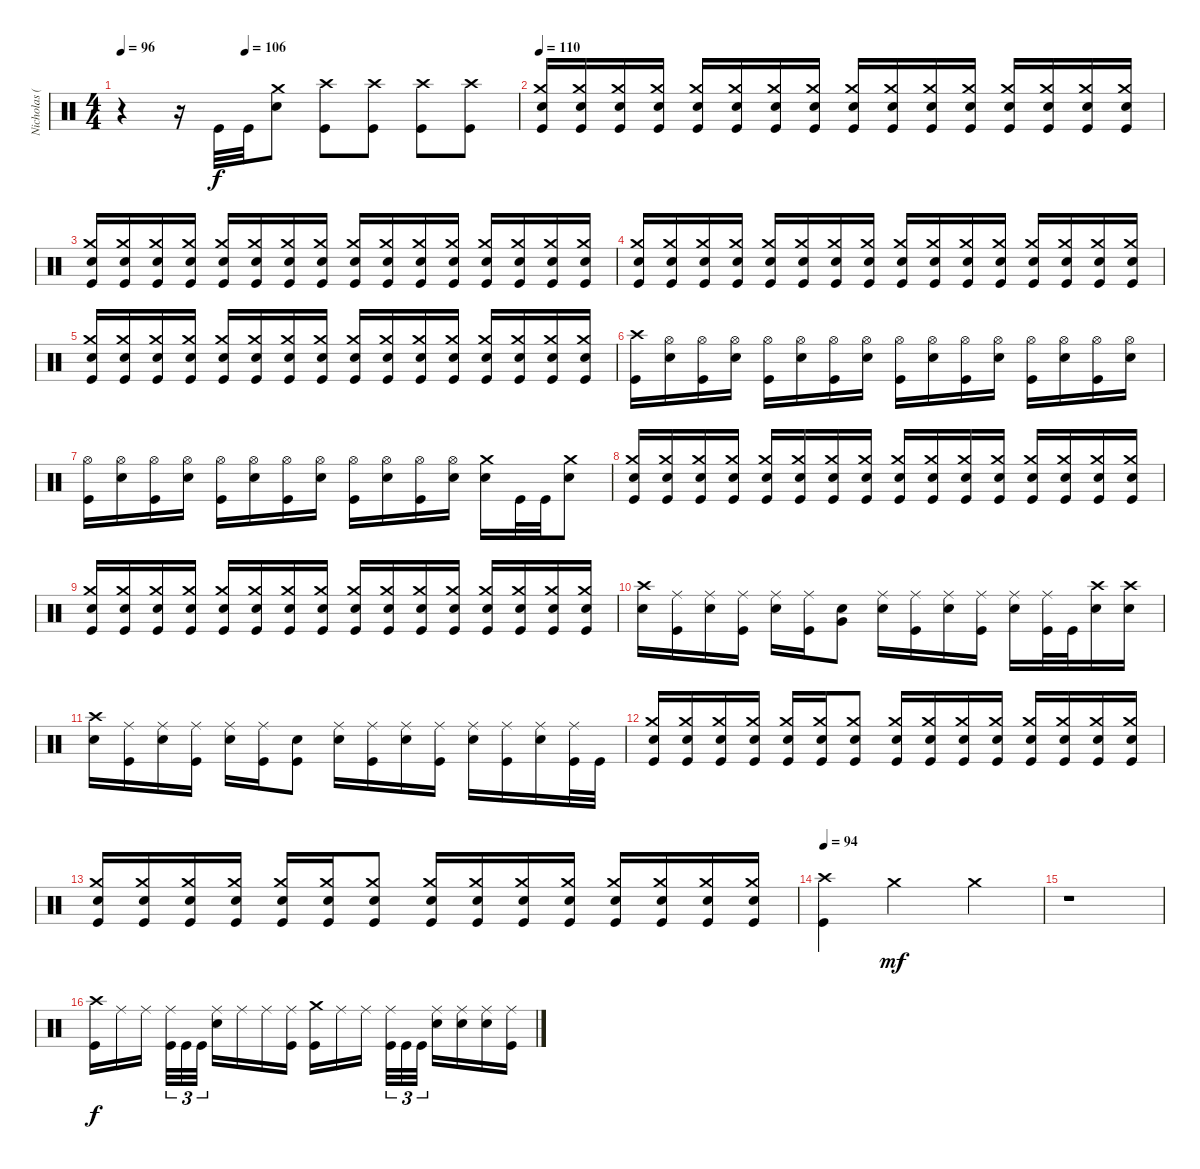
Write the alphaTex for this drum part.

\track ("Nicholas (Drums)" "Nicholas (") {instrument percussion}
\staff {score}
\articulation defaults
\ts (4 4)
\tempo 96
\tempo (106 0.3125)
\clef neutral
\ks c
r.4{dy f} r.16 "Kick (hit)".32 "Kick (hit)".32 ("Crash medium (hit)" "Electric Snare (hit)").8 ("Crash high (hit)" "Kick (hit)").8 ("Crash high (hit)" "Kick (hit)").8 ("Crash high (hit)" "Kick (hit)").8 ("Crash high (hit)" "Kick (hit)").8 |
\tempo 110
("Crash medium (hit)" "Electric Snare (hit)" "Kick (hit)").16 ("Crash medium (hit)" "Electric Snare (hit)" "Kick (hit)").16 ("Crash medium (hit)" "Electric Snare (hit)" "Kick (hit)").16 ("Crash medium (hit)" "Electric Snare (hit)" "Kick (hit)").16 ("Crash medium (hit)" "Electric Snare (hit)" "Kick (hit)").16 ("Crash medium (hit)" "Electric Snare (hit)" "Kick (hit)").16 ("Crash medium (hit)" "Electric Snare (hit)" "Kick (hit)").16 ("Crash medium (hit)" "Electric Snare (hit)" "Kick (hit)").16 ("Crash medium (hit)" "Electric Snare (hit)" "Kick (hit)").16 ("Crash medium (hit)" "Electric Snare (hit)" "Kick (hit)").16 ("Crash medium (hit)" "Electric Snare (hit)" "Kick (hit)").16 ("Crash medium (hit)" "Electric Snare (hit)" "Kick (hit)").16 ("Crash medium (hit)" "Electric Snare (hit)" "Kick (hit)").16 ("Crash medium (hit)" "Electric Snare (hit)" "Kick (hit)").16 ("Crash medium (hit)" "Electric Snare (hit)" "Kick (hit)").16 ("Crash medium (hit)" "Electric Snare (hit)" "Kick (hit)").16 |
("Crash medium (hit)" "Electric Snare (hit)" "Kick (hit)").16 ("Crash medium (hit)" "Electric Snare (hit)" "Kick (hit)").16 ("Crash medium (hit)" "Electric Snare (hit)" "Kick (hit)").16 ("Crash medium (hit)" "Electric Snare (hit)" "Kick (hit)").16 ("Crash medium (hit)" "Electric Snare (hit)" "Kick (hit)").16 ("Crash medium (hit)" "Electric Snare (hit)" "Kick (hit)").16 ("Crash medium (hit)" "Electric Snare (hit)" "Kick (hit)").16 ("Crash medium (hit)" "Electric Snare (hit)" "Kick (hit)").16 ("Crash medium (hit)" "Electric Snare (hit)" "Kick (hit)").16 ("Crash medium (hit)" "Electric Snare (hit)" "Kick (hit)").16 ("Crash medium (hit)" "Electric Snare (hit)" "Kick (hit)").16 ("Crash medium (hit)" "Electric Snare (hit)" "Kick (hit)").16 ("Crash medium (hit)" "Electric Snare (hit)" "Kick (hit)").16 ("Crash medium (hit)" "Electric Snare (hit)" "Kick (hit)").16 ("Crash medium (hit)" "Electric Snare (hit)" "Kick (hit)").16 ("Crash medium (hit)" "Electric Snare (hit)" "Kick (hit)").16 |
("Crash medium (hit)" "Electric Snare (hit)" "Kick (hit)").16 ("Crash medium (hit)" "Electric Snare (hit)" "Kick (hit)").16 ("Crash medium (hit)" "Electric Snare (hit)" "Kick (hit)").16 ("Crash medium (hit)" "Electric Snare (hit)" "Kick (hit)").16 ("Crash medium (hit)" "Electric Snare (hit)" "Kick (hit)").16 ("Crash medium (hit)" "Electric Snare (hit)" "Kick (hit)").16 ("Crash medium (hit)" "Electric Snare (hit)" "Kick (hit)").16 ("Crash medium (hit)" "Electric Snare (hit)" "Kick (hit)").16 ("Crash medium (hit)" "Electric Snare (hit)" "Kick (hit)").16 ("Crash medium (hit)" "Electric Snare (hit)" "Kick (hit)").16 ("Crash medium (hit)" "Electric Snare (hit)" "Kick (hit)").16 ("Crash medium (hit)" "Electric Snare (hit)" "Kick (hit)").16 ("Crash medium (hit)" "Electric Snare (hit)" "Kick (hit)").16 ("Crash medium (hit)" "Electric Snare (hit)" "Kick (hit)").16 ("Crash medium (hit)" "Electric Snare (hit)" "Kick (hit)").16 ("Crash medium (hit)" "Electric Snare (hit)" "Kick (hit)").16 |
("Crash medium (hit)" "Electric Snare (hit)" "Kick (hit)").16 ("Crash medium (hit)" "Electric Snare (hit)" "Kick (hit)").16 ("Crash medium (hit)" "Electric Snare (hit)" "Kick (hit)").16 ("Crash medium (hit)" "Electric Snare (hit)" "Kick (hit)").16 ("Crash medium (hit)" "Electric Snare (hit)" "Kick (hit)").16 ("Crash medium (hit)" "Electric Snare (hit)" "Kick (hit)").16 ("Crash medium (hit)" "Electric Snare (hit)" "Kick (hit)").16 ("Crash medium (hit)" "Electric Snare (hit)" "Kick (hit)").16 ("Crash medium (hit)" "Electric Snare (hit)" "Kick (hit)").16 ("Crash medium (hit)" "Electric Snare (hit)" "Kick (hit)").16 ("Crash medium (hit)" "Electric Snare (hit)" "Kick (hit)").16 ("Crash medium (hit)" "Electric Snare (hit)" "Kick (hit)").16 ("Crash medium (hit)" "Electric Snare (hit)" "Kick (hit)").16 ("Crash medium (hit)" "Electric Snare (hit)" "Kick (hit)").16 ("Crash medium (hit)" "Electric Snare (hit)" "Kick (hit)").16 ("Crash medium (hit)" "Electric Snare (hit)" "Kick (hit)").16 |
("Crash high (hit)" "Kick (hit)").16 ("Hi-Hat (open)" "Electric Snare (hit)").16 ("Hi-Hat (open)" "Kick (hit)").16 ("Hi-Hat (open)" "Electric Snare (hit)").16 ("Hi-Hat (open)" "Kick (hit)").16 ("Hi-Hat (open)" "Electric Snare (hit)").16 ("Hi-Hat (open)" "Kick (hit)").16 ("Hi-Hat (open)" "Electric Snare (hit)").16 ("Hi-Hat (open)" "Kick (hit)").16 ("Hi-Hat (open)" "Electric Snare (hit)").16 ("Hi-Hat (open)" "Kick (hit)").16 ("Hi-Hat (open)" "Electric Snare (hit)").16 ("Hi-Hat (open)" "Kick (hit)").16 ("Hi-Hat (open)" "Electric Snare (hit)").16 ("Hi-Hat (open)" "Kick (hit)").16 ("Hi-Hat (open)" "Electric Snare (hit)").16 |
("Hi-Hat (open)" "Kick (hit)").16 ("Hi-Hat (open)" "Electric Snare (hit)").16 ("Hi-Hat (open)" "Kick (hit)").16 ("Hi-Hat (open)" "Electric Snare (hit)").16 ("Hi-Hat (open)" "Kick (hit)").16 ("Hi-Hat (open)" "Electric Snare (hit)").16 ("Hi-Hat (open)" "Kick (hit)").16 ("Hi-Hat (open)" "Electric Snare (hit)").16 ("Hi-Hat (open)" "Kick (hit)").16 ("Hi-Hat (open)" "Electric Snare (hit)").16 ("Hi-Hat (open)" "Kick (hit)").16 ("Hi-Hat (open)" "Electric Snare (hit)").16 ("Crash medium (hit)" "Electric Snare (hit)").16 "Kick (hit)".32 "Kick (hit)".32 ("Crash medium (hit)" "Electric Snare (hit)").8 |
("Crash medium (hit)" "Electric Snare (hit)" "Kick (hit)").16 ("Crash medium (hit)" "Electric Snare (hit)" "Kick (hit)").16 ("Crash medium (hit)" "Electric Snare (hit)" "Kick (hit)").16 ("Crash medium (hit)" "Electric Snare (hit)" "Kick (hit)").16 ("Crash medium (hit)" "Electric Snare (hit)" "Kick (hit)").16 ("Crash medium (hit)" "Electric Snare (hit)" "Kick (hit)").16 ("Crash medium (hit)" "Electric Snare (hit)" "Kick (hit)").16 ("Crash medium (hit)" "Electric Snare (hit)" "Kick (hit)").16 ("Crash medium (hit)" "Electric Snare (hit)" "Kick (hit)").16 ("Crash medium (hit)" "Electric Snare (hit)" "Kick (hit)").16 ("Crash medium (hit)" "Electric Snare (hit)" "Kick (hit)").16 ("Crash medium (hit)" "Electric Snare (hit)" "Kick (hit)").16 ("Crash medium (hit)" "Electric Snare (hit)" "Kick (hit)").16 ("Crash medium (hit)" "Electric Snare (hit)" "Kick (hit)").16 ("Crash medium (hit)" "Electric Snare (hit)" "Kick (hit)").16 ("Crash medium (hit)" "Electric Snare (hit)" "Kick (hit)").16 |
("Crash medium (hit)" "Electric Snare (hit)" "Kick (hit)").16 ("Crash medium (hit)" "Electric Snare (hit)" "Kick (hit)").16 ("Crash medium (hit)" "Electric Snare (hit)" "Kick (hit)").16 ("Crash medium (hit)" "Electric Snare (hit)" "Kick (hit)").16 ("Crash medium (hit)" "Electric Snare (hit)" "Kick (hit)").16 ("Crash medium (hit)" "Electric Snare (hit)" "Kick (hit)").16 ("Crash medium (hit)" "Electric Snare (hit)" "Kick (hit)").16 ("Crash medium (hit)" "Electric Snare (hit)" "Kick (hit)").16 ("Crash medium (hit)" "Electric Snare (hit)" "Kick (hit)").16 ("Crash medium (hit)" "Electric Snare (hit)" "Kick (hit)").16 ("Crash medium (hit)" "Electric Snare (hit)" "Kick (hit)").16 ("Crash medium (hit)" "Electric Snare (hit)" "Kick (hit)").16 ("Crash medium (hit)" "Electric Snare (hit)" "Kick (hit)").16 ("Crash medium (hit)" "Electric Snare (hit)" "Kick (hit)").16 ("Crash medium (hit)" "Electric Snare (hit)" "Kick (hit)").16 ("Crash medium (hit)" "Electric Snare (hit)" "Kick (hit)").16 |
("Crash high (hit)" "Electric Snare (hit)").16 ("Ride (middle)" "Kick (hit)").16 ("Ride (middle)" "Electric Snare (hit)").16 ("Ride (middle)" "Kick (hit)").16 ("Ride (middle)" "Electric Snare (hit)").16 ("Ride (middle)" "Kick (hit)").16 ("Very Low Tom (hit)" "Electric Snare (hit)").8 ("Ride (middle)" "Electric Snare (hit)").16 ("Ride (middle)" "Kick (hit)").16 ("Ride (middle)" "Electric Snare (hit)").16 ("Ride (middle)" "Kick (hit)").16 ("Ride (middle)" "Electric Snare (hit)").16 ("Ride (middle)" "Kick (hit)").32 "Kick (hit)".32 ("Crash high (hit)" "Electric Snare (hit)").16 ("Crash high (hit)" "Electric Snare (hit)").16 |
("Crash high (hit)" "Electric Snare (hit)").16 ("Ride (middle)" "Kick (hit)").16 ("Ride (middle)" "Electric Snare (hit)").16 ("Ride (middle)" "Kick (hit)").16 ("Ride (middle)" "Electric Snare (hit)").16 ("Ride (middle)" "Kick (hit)").16 ("Electric Snare (hit)" "Kick (hit)").8 ("Ride (middle)" "Electric Snare (hit)").16 ("Ride (middle)" "Kick (hit)").16 ("Ride (middle)" "Electric Snare (hit)").16 ("Ride (middle)" "Kick (hit)").16 ("Ride (middle)" "Electric Snare (hit)").16 ("Ride (middle)" "Kick (hit)").16 ("Ride (middle)" "Electric Snare (hit)").16 ("Ride (middle)" "Kick (hit)").32 "Kick (hit)".32 |
("Crash medium (hit)" "Electric Snare (hit)" "Kick (hit)").16 ("Crash medium (hit)" "Electric Snare (hit)" "Kick (hit)").16 ("Crash medium (hit)" "Electric Snare (hit)" "Kick (hit)").16 ("Crash medium (hit)" "Electric Snare (hit)" "Kick (hit)").16 ("Crash medium (hit)" "Electric Snare (hit)" "Kick (hit)").16 ("Crash medium (hit)" "Electric Snare (hit)" "Kick (hit)").16 ("Crash medium (hit)" "Electric Snare (hit)" "Kick (hit)").8 ("Crash medium (hit)" "Electric Snare (hit)" "Kick (hit)").16 ("Crash medium (hit)" "Electric Snare (hit)" "Kick (hit)").16 ("Crash medium (hit)" "Electric Snare (hit)" "Kick (hit)").16 ("Crash medium (hit)" "Electric Snare (hit)" "Kick (hit)").16 ("Crash medium (hit)" "Electric Snare (hit)" "Kick (hit)").16 ("Crash medium (hit)" "Electric Snare (hit)" "Kick (hit)").16 ("Crash medium (hit)" "Electric Snare (hit)" "Kick (hit)").16 ("Crash medium (hit)" "Electric Snare (hit)" "Kick (hit)").16 |
("Crash medium (hit)" "Electric Snare (hit)" "Kick (hit)").16 ("Crash medium (hit)" "Electric Snare (hit)" "Kick (hit)").16 ("Crash medium (hit)" "Electric Snare (hit)" "Kick (hit)").16 ("Crash medium (hit)" "Electric Snare (hit)" "Kick (hit)").16 ("Crash medium (hit)" "Electric Snare (hit)" "Kick (hit)").16 ("Crash medium (hit)" "Electric Snare (hit)" "Kick (hit)").16 ("Crash medium (hit)" "Electric Snare (hit)" "Kick (hit)").8 ("Crash medium (hit)" "Electric Snare (hit)" "Kick (hit)").16 ("Crash medium (hit)" "Electric Snare (hit)" "Kick (hit)").16 ("Crash medium (hit)" "Electric Snare (hit)" "Kick (hit)").16 ("Crash medium (hit)" "Electric Snare (hit)" "Kick (hit)").16 ("Crash medium (hit)" "Electric Snare (hit)" "Kick (hit)").16 ("Crash medium (hit)" "Electric Snare (hit)" "Kick (hit)").16 ("Crash medium (hit)" "Electric Snare (hit)" "Kick (hit)").16 ("Crash medium (hit)" "Electric Snare (hit)" "Kick (hit)").16 |
\tempo 94
("Crash high (hit)" "Kick (hit)").4 "Crash medium (hit)".2{dy mf} "Crash medium (hit)".4 |
r.1 |
("Crash high (hit)" "Kick (hit)").16{dy f} "Ride (middle)".16 "Ride (middle)".16 ("Ride (middle)" "Kick (hit)").32{tu (3 2)} "Kick (hit)".32{tu (3 2)} "Kick (hit)".32{tu (3 2)} ("Ride (middle)" "Electric Snare (hit)").16 "Ride (middle)".16 "Ride (middle)".16 ("Ride (middle)" "Kick (hit)").16 ("Crash medium (hit)" "Kick (hit)").16 "Ride (middle)".16 "Ride (middle)".16 ("Ride (middle)" "Kick (hit)").32{tu (3 2)} "Kick (hit)".32{tu (3 2)} "Kick (hit)".32{tu (3 2)} ("Ride (middle)" "Electric Snare (hit)").16 ("Ride (middle)" "Electric Snare (hit)").16 ("Ride (middle)" "Electric Snare (hit)").16 ("Ride (middle)" "Kick (hit)").16
